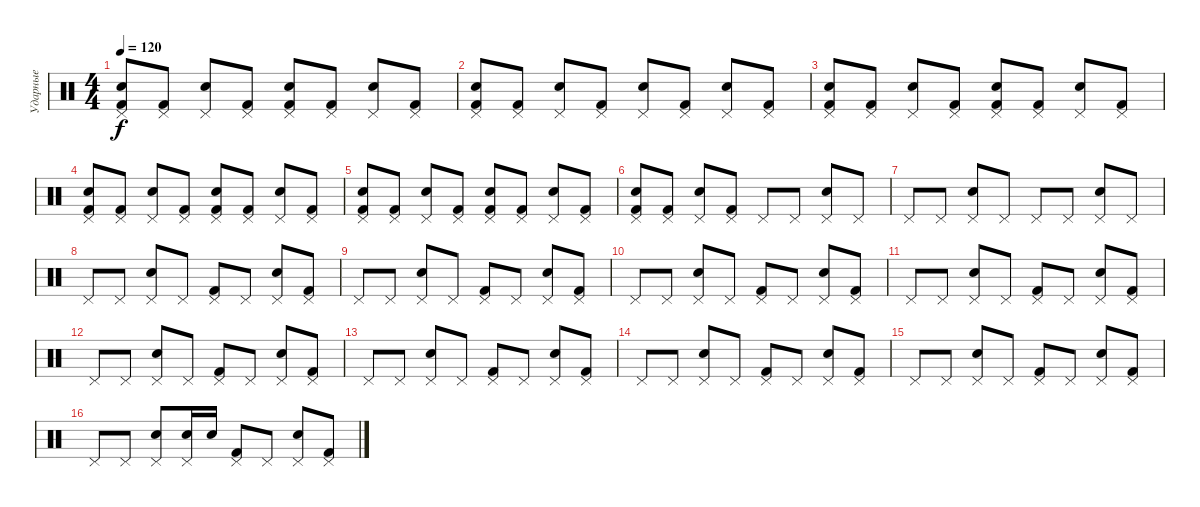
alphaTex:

\track ("Ударные" "Ударные") {instrument percussion}
\staff {score}
\articulation defaults
\ts (4 4)
\tempo 120
\clef neutral
\ks c
("Kick (hit) 2" "Snare (hit) 2" "Pedal Hi-Hat (hit)").8{dy f} ("Kick (hit) 2" "Pedal Hi-Hat (hit)").8 ("Snare (hit) 2" "Pedal Hi-Hat (hit)").8 ("Kick (hit) 2" "Pedal Hi-Hat (hit)").8 ("Kick (hit) 2" "Snare (hit) 2" "Pedal Hi-Hat (hit)").8 ("Kick (hit) 2" "Pedal Hi-Hat (hit)").8 ("Snare (hit) 2" "Pedal Hi-Hat (hit)").8 ("Kick (hit) 2" "Pedal Hi-Hat (hit)").8 |
("Kick (hit) 2" "Snare (hit) 2" "Pedal Hi-Hat (hit)").8 ("Kick (hit) 2" "Pedal Hi-Hat (hit)").8 ("Snare (hit) 2" "Pedal Hi-Hat (hit)").8 ("Kick (hit) 2" "Pedal Hi-Hat (hit)").8 ("Snare (hit) 2" "Pedal Hi-Hat (hit)").8 ("Kick (hit) 2" "Pedal Hi-Hat (hit)").8 ("Snare (hit) 2" "Pedal Hi-Hat (hit)").8 ("Kick (hit) 2" "Pedal Hi-Hat (hit)").8 |
("Kick (hit) 2" "Snare (hit) 2" "Pedal Hi-Hat (hit)").8 ("Kick (hit) 2" "Pedal Hi-Hat (hit)").8 ("Snare (hit) 2" "Pedal Hi-Hat (hit)").8 ("Kick (hit) 2" "Pedal Hi-Hat (hit)").8 ("Kick (hit) 2" "Snare (hit) 2" "Pedal Hi-Hat (hit)").8 ("Kick (hit) 2" "Pedal Hi-Hat (hit)").8 ("Snare (hit) 2" "Pedal Hi-Hat (hit)").8 ("Kick (hit) 2" "Pedal Hi-Hat (hit)").8 |
("Kick (hit) 2" "Snare (hit) 2" "Pedal Hi-Hat (hit)").8 ("Kick (hit) 2" "Pedal Hi-Hat (hit)").8 ("Snare (hit) 2" "Pedal Hi-Hat (hit)").8 ("Kick (hit) 2" "Pedal Hi-Hat (hit)").8 ("Kick (hit) 2" "Snare (hit) 2" "Pedal Hi-Hat (hit)").8 ("Kick (hit) 2" "Pedal Hi-Hat (hit)").8 ("Snare (hit) 2" "Pedal Hi-Hat (hit)").8 ("Kick (hit) 2" "Pedal Hi-Hat (hit)").8 |
("Kick (hit) 2" "Snare (hit) 2" "Pedal Hi-Hat (hit)").8 ("Kick (hit) 2" "Pedal Hi-Hat (hit)").8 ("Snare (hit) 2" "Pedal Hi-Hat (hit)").8 ("Kick (hit) 2" "Pedal Hi-Hat (hit)").8 ("Kick (hit) 2" "Snare (hit) 2" "Pedal Hi-Hat (hit)").8 ("Kick (hit) 2" "Pedal Hi-Hat (hit)").8 ("Snare (hit) 2" "Pedal Hi-Hat (hit)").8 ("Kick (hit) 2" "Pedal Hi-Hat (hit)").8 |
("Kick (hit) 2" "Snare (hit) 2" "Pedal Hi-Hat (hit)").8 ("Kick (hit) 2" "Pedal Hi-Hat (hit)").8 ("Snare (hit) 2" "Pedal Hi-Hat (hit)").8 ("Kick (hit) 2" "Pedal Hi-Hat (hit)").8 "Pedal Hi-Hat (hit)".8 "Pedal Hi-Hat (hit)".8 ("Snare (hit) 2" "Pedal Hi-Hat (hit)").8 "Pedal Hi-Hat (hit)".8 |
"Pedal Hi-Hat (hit)".8 "Pedal Hi-Hat (hit)".8 ("Snare (hit) 2" "Pedal Hi-Hat (hit)").8 "Pedal Hi-Hat (hit)".8 "Pedal Hi-Hat (hit)".8 "Pedal Hi-Hat (hit)".8 ("Snare (hit) 2" "Pedal Hi-Hat (hit)").8 "Pedal Hi-Hat (hit)".8 |
"Pedal Hi-Hat (hit)".8 "Pedal Hi-Hat (hit)".8 ("Snare (hit) 2" "Pedal Hi-Hat (hit)").8 "Pedal Hi-Hat (hit)".8 ("Kick (hit) 2" "Pedal Hi-Hat (hit)").8 "Pedal Hi-Hat (hit)".8 ("Snare (hit) 2" "Pedal Hi-Hat (hit)").8 ("Kick (hit) 2" "Pedal Hi-Hat (hit)").8 |
"Pedal Hi-Hat (hit)".8 "Pedal Hi-Hat (hit)".8 ("Snare (hit) 2" "Pedal Hi-Hat (hit)").8 "Pedal Hi-Hat (hit)".8 ("Kick (hit) 2" "Pedal Hi-Hat (hit)").8 "Pedal Hi-Hat (hit)".8 ("Snare (hit) 2" "Pedal Hi-Hat (hit)").8 ("Kick (hit) 2" "Pedal Hi-Hat (hit)").8 |
"Pedal Hi-Hat (hit)".8 "Pedal Hi-Hat (hit)".8 ("Snare (hit) 2" "Pedal Hi-Hat (hit)").8 "Pedal Hi-Hat (hit)".8 ("Kick (hit) 2" "Pedal Hi-Hat (hit)").8 "Pedal Hi-Hat (hit)".8 ("Snare (hit) 2" "Pedal Hi-Hat (hit)").8 ("Kick (hit) 2" "Pedal Hi-Hat (hit)").8 |
"Pedal Hi-Hat (hit)".8 "Pedal Hi-Hat (hit)".8 ("Snare (hit) 2" "Pedal Hi-Hat (hit)").8 "Pedal Hi-Hat (hit)".8 ("Kick (hit) 2" "Pedal Hi-Hat (hit)").8 "Pedal Hi-Hat (hit)".8 ("Snare (hit) 2" "Pedal Hi-Hat (hit)").8 ("Kick (hit) 2" "Pedal Hi-Hat (hit)").8 |
"Pedal Hi-Hat (hit)".8 "Pedal Hi-Hat (hit)".8 ("Snare (hit) 2" "Pedal Hi-Hat (hit)").8 "Pedal Hi-Hat (hit)".8 ("Kick (hit) 2" "Pedal Hi-Hat (hit)").8 "Pedal Hi-Hat (hit)".8 ("Snare (hit) 2" "Pedal Hi-Hat (hit)").8 ("Kick (hit) 2" "Pedal Hi-Hat (hit)").8 |
"Pedal Hi-Hat (hit)".8 "Pedal Hi-Hat (hit)".8 ("Snare (hit) 2" "Pedal Hi-Hat (hit)").8 "Pedal Hi-Hat (hit)".8 ("Kick (hit) 2" "Pedal Hi-Hat (hit)").8 "Pedal Hi-Hat (hit)".8 ("Snare (hit) 2" "Pedal Hi-Hat (hit)").8 ("Kick (hit) 2" "Pedal Hi-Hat (hit)").8 |
"Pedal Hi-Hat (hit)".8 "Pedal Hi-Hat (hit)".8 ("Snare (hit) 2" "Pedal Hi-Hat (hit)").8 "Pedal Hi-Hat (hit)".8 ("Kick (hit) 2" "Pedal Hi-Hat (hit)").8 "Pedal Hi-Hat (hit)".8 ("Snare (hit) 2" "Pedal Hi-Hat (hit)").8 ("Kick (hit) 2" "Pedal Hi-Hat (hit)").8 |
"Pedal Hi-Hat (hit)".8 "Pedal Hi-Hat (hit)".8 ("Snare (hit) 2" "Pedal Hi-Hat (hit)").8 "Pedal Hi-Hat (hit)".8 ("Kick (hit) 2" "Pedal Hi-Hat (hit)").8 "Pedal Hi-Hat (hit)".8 ("Snare (hit) 2" "Pedal Hi-Hat (hit)").8 ("Kick (hit) 2" "Pedal Hi-Hat (hit)").8 |
"Pedal Hi-Hat (hit)".8 "Pedal Hi-Hat (hit)".8 ("Snare (hit) 2" "Pedal Hi-Hat (hit)").8 ("Snare (hit) 2" "Pedal Hi-Hat (hit)").16 "Snare (hit) 2".16 ("Kick (hit) 2" "Pedal Hi-Hat (hit)").8 "Pedal Hi-Hat (hit)".8 ("Snare (hit) 2" "Pedal Hi-Hat (hit)").8 ("Kick (hit) 2" "Pedal Hi-Hat (hit)").8
